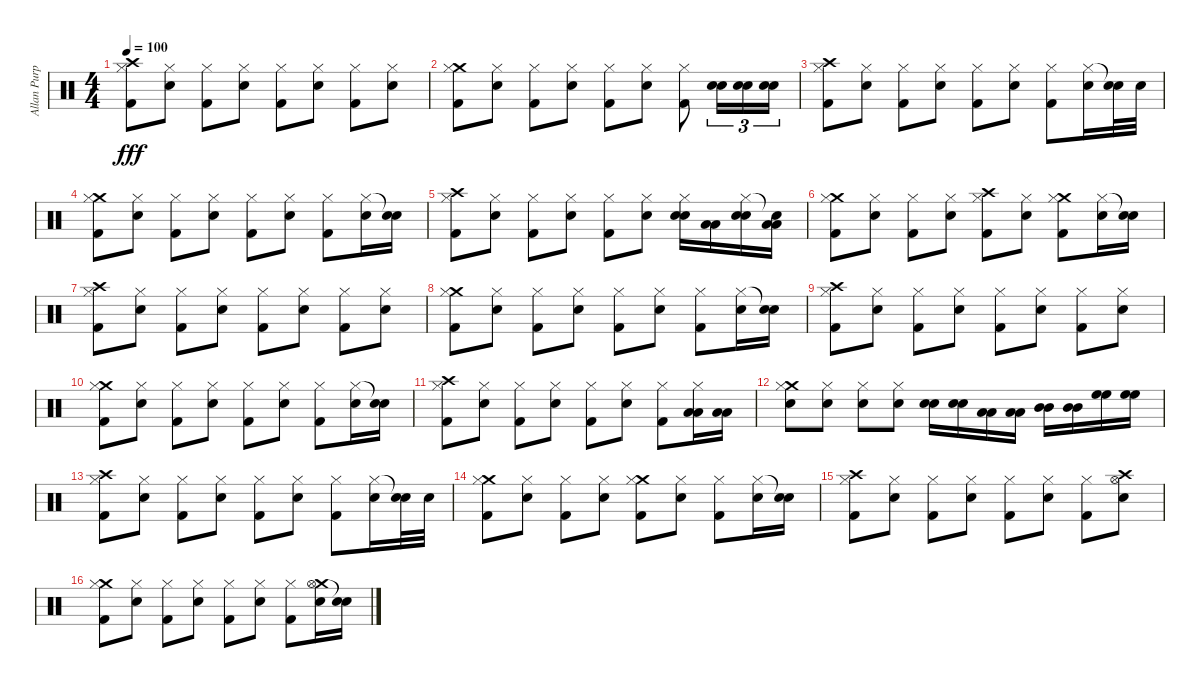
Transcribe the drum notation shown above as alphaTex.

\track ("Allan Purple" "Allan Purp") {instrument percussion}
\staff {score}
\articulation defaults
\ts (4 4)
\tempo 100
\clef neutral
\ks c
("Crash high (hit)" "Hi-Hat (closed)" "Kick (hit) 2").8{dy fff} ("Hi-Hat (closed)" "Electric Snare (hit)").8 ("Hi-Hat (closed)" "Kick (hit) 2").8 ("Hi-Hat (closed)" "Electric Snare (hit)").8 ("Hi-Hat (closed)" "Kick (hit) 2").8 ("Hi-Hat (closed)" "Electric Snare (hit)").8 ("Hi-Hat (closed)" "Kick (hit) 2").8 ("Hi-Hat (closed)" "Electric Snare (hit)").8 |
("Crash medium (hit)" "Hi-Hat (closed)" "Kick (hit) 2").8 ("Hi-Hat (closed)" "Electric Snare (hit)").8 ("Hi-Hat (closed)" "Kick (hit) 2").8 ("Hi-Hat (closed)" "Electric Snare (hit)").8 ("Hi-Hat (closed)" "Kick (hit) 2").8 ("Hi-Hat (closed)" "Electric Snare (hit)").8 ("Hi-Hat (closed)" "Kick (hit) 2").8 ("Electric Snare (hit)" "Electric Snare (hit)").16{tu (3 2)} ("Electric Snare (hit)" "Electric Snare (hit)").16{tu (3 2)} ("Electric Snare (hit)" "Electric Snare (hit)").16{tu (3 2)} |
("Crash high (hit)" "Hi-Hat (closed)" "Kick (hit) 2").8 ("Hi-Hat (closed)" "Electric Snare (hit)").8 ("Hi-Hat (closed)" "Kick (hit) 2").8 ("Hi-Hat (closed)" "Electric Snare (hit)").8 ("Hi-Hat (closed)" "Kick (hit) 2").8 ("Hi-Hat (closed)" "Electric Snare (hit)").8 ("Hi-Hat (closed)" "Kick (hit) 2").8 ("Hi-Hat (closed)" "Electric Snare (hit)").16 ("Snare (hit)"{t} "Electric Snare (hit)").32 "Electric Snare (hit)".32 |
("Crash medium (hit)" "Hi-Hat (closed)" "Kick (hit) 2").8 ("Hi-Hat (closed)" "Electric Snare (hit)").8 ("Hi-Hat (closed)" "Kick (hit) 2").8 ("Hi-Hat (closed)" "Electric Snare (hit)").8 ("Hi-Hat (closed)" "Kick (hit) 2").8 ("Hi-Hat (closed)" "Electric Snare (hit)").8 ("Hi-Hat (closed)" "Kick (hit) 2").8 ("Hi-Hat (closed)" "Electric Snare (hit)").16 ("Snare (hit)"{t} "Electric Snare (hit)").16 |
("Crash high (hit)" "Hi-Hat (closed)" "Kick (hit) 2").8 ("Hi-Hat (closed)" "Electric Snare (hit)").8 ("Hi-Hat (closed)" "Kick (hit) 2").8 ("Hi-Hat (closed)" "Electric Snare (hit)").8 ("Hi-Hat (closed)" "Kick (hit) 2").8 ("Hi-Hat (closed)" "Electric Snare (hit)").8 ("Hi-Hat (closed)" "Electric Snare (hit)" "Electric Snare (hit)").16 ("Low Tom (hit)" "Low Tom (hit)").16 ("Hi-Hat (closed)" "Electric Snare (hit)" "Electric Snare (hit)").16 ("Snare (hit)"{t} "Low Tom (hit)" "Low Tom (hit)").16 |
("Crash medium (hit)" "Hi-Hat (closed)" "Kick (hit) 2").8 ("Hi-Hat (closed)" "Electric Snare (hit)").8 ("Hi-Hat (closed)" "Kick (hit) 2").8 ("Hi-Hat (closed)" "Electric Snare (hit)").8 ("Crash high (hit)" "Hi-Hat (closed)" "Kick (hit) 2").8 ("Hi-Hat (closed)" "Electric Snare (hit)").8 ("Crash medium (hit)" "Hi-Hat (closed)" "Kick (hit) 2").8 ("Hi-Hat (closed)" "Electric Snare (hit)").16 ("Snare (hit)"{t} "Electric Snare (hit)").16 |
("Crash high (hit)" "Hi-Hat (closed)" "Kick (hit) 2").8 ("Hi-Hat (closed)" "Electric Snare (hit)").8 ("Hi-Hat (closed)" "Kick (hit) 2").8 ("Hi-Hat (closed)" "Electric Snare (hit)").8 ("Hi-Hat (closed)" "Kick (hit) 2").8 ("Hi-Hat (closed)" "Electric Snare (hit)").8 ("Hi-Hat (closed)" "Kick (hit) 2").8 ("Hi-Hat (closed)" "Electric Snare (hit)").8 |
("Crash medium (hit)" "Hi-Hat (closed)" "Kick (hit) 2").8 ("Hi-Hat (closed)" "Electric Snare (hit)").8 ("Hi-Hat (closed)" "Kick (hit) 2").8 ("Hi-Hat (closed)" "Electric Snare (hit)").8 ("Hi-Hat (closed)" "Kick (hit) 2").8 ("Hi-Hat (closed)" "Electric Snare (hit)").8 ("Hi-Hat (closed)" "Kick (hit) 2").8 ("Hi-Hat (closed)" "Electric Snare (hit)").16 ("Snare (hit)"{t} "Electric Snare (hit)").16 |
("Crash high (hit)" "Hi-Hat (closed)" "Kick (hit) 2").8 ("Hi-Hat (closed)" "Electric Snare (hit)").8 ("Hi-Hat (closed)" "Kick (hit) 2").8 ("Hi-Hat (closed)" "Electric Snare (hit)").8 ("Hi-Hat (closed)" "Kick (hit) 2").8 ("Hi-Hat (closed)" "Electric Snare (hit)").8 ("Hi-Hat (closed)" "Kick (hit) 2").8 ("Hi-Hat (closed)" "Electric Snare (hit)").8 |
("Crash medium (hit)" "Hi-Hat (closed)" "Kick (hit) 2").8 ("Hi-Hat (closed)" "Electric Snare (hit)").8 ("Hi-Hat (closed)" "Kick (hit) 2").8 ("Hi-Hat (closed)" "Electric Snare (hit)").8 ("Hi-Hat (closed)" "Kick (hit) 2").8 ("Hi-Hat (closed)" "Electric Snare (hit)").8 ("Hi-Hat (closed)" "Kick (hit) 2").8 ("Hi-Hat (closed)" "Electric Snare (hit)").16 ("Snare (hit)"{t} "Electric Snare (hit)").16 |
("Crash high (hit)" "Hi-Hat (closed)" "Kick (hit) 2").8 ("Hi-Hat (closed)" "Electric Snare (hit)").8 ("Hi-Hat (closed)" "Kick (hit) 2").8 ("Hi-Hat (closed)" "Electric Snare (hit)").8 ("Hi-Hat (closed)" "Kick (hit) 2").8 ("Hi-Hat (closed)" "Electric Snare (hit)").8 ("Hi-Hat (closed)" "Kick (hit) 2").8 ("Hi-Hat (closed)" "Low Tom (hit)" "Low Tom (hit)").16 ("Low Tom (hit)" "Low Tom (hit)").16 |
("Crash medium (hit)" "Hi-Hat (closed)" "Electric Snare (hit)").8 ("Hi-Hat (closed)" "Electric Snare (hit)").8 ("Hi-Hat (closed)" "Electric Snare (hit)").8 ("Hi-Hat (closed)" "Electric Snare (hit)").8 ("Electric Snare (hit)" "Electric Snare (hit)").16 ("Electric Snare (hit)" "Electric Snare (hit)").16 ("Low Tom (hit)" "Low Tom (hit)").16 ("Low Tom (hit)" "Low Tom (hit)").16 ("Mid Tom (hit)" "Mid Tom (hit)").16 ("Mid Tom (hit)" "Mid Tom (hit)").16 ("High Floor Tom (hit)" "High Floor Tom (hit)").16 ("High Floor Tom (hit)" "High Floor Tom (hit)").16 |
("Crash high (hit)" "Hi-Hat (closed)" "Kick (hit) 2").8 ("Hi-Hat (closed)" "Electric Snare (hit)").8 ("Hi-Hat (closed)" "Kick (hit) 2").8 ("Hi-Hat (closed)" "Electric Snare (hit)").8 ("Hi-Hat (closed)" "Kick (hit) 2").8 ("Hi-Hat (closed)" "Electric Snare (hit)").8 ("Hi-Hat (closed)" "Kick (hit) 2").8 ("Hi-Hat (closed)" "Electric Snare (hit)").16 ("Snare (hit)"{t} "Electric Snare (hit)").32 "Electric Snare (hit)".32 |
("Crash medium (hit)" "Hi-Hat (closed)" "Kick (hit) 2").8 ("Hi-Hat (closed)" "Electric Snare (hit)").8 ("Hi-Hat (closed)" "Kick (hit) 2").8 ("Hi-Hat (closed)" "Electric Snare (hit)").8 ("Crash medium (hit)" "Hi-Hat (closed)" "Kick (hit) 2").8 ("Hi-Hat (closed)" "Electric Snare (hit)").8 ("Hi-Hat (closed)" "Kick (hit) 2").8 ("Hi-Hat (closed)" "Electric Snare (hit)").16 ("Snare (hit)"{t} "Electric Snare (hit)").16 |
("Crash high (hit)" "Hi-Hat (closed)" "Kick (hit) 2").8 ("Hi-Hat (closed)" "Electric Snare (hit)").8 ("Hi-Hat (closed)" "Kick (hit) 2").8 ("Hi-Hat (closed)" "Electric Snare (hit)").8 ("Hi-Hat (closed)" "Kick (hit) 2").8 ("Hi-Hat (closed)" "Electric Snare (hit)").8 ("Hi-Hat (closed)" "Kick (hit) 2").8 ("Crash high (hit)" "Hi-Hat (open)" "Electric Snare (hit)").8 |
("Crash medium (hit)" "Hi-Hat (closed)" "Kick (hit) 2").8 ("Hi-Hat (closed)" "Electric Snare (hit)").8 ("Hi-Hat (closed)" "Kick (hit) 2").8 ("Hi-Hat (closed)" "Electric Snare (hit)").8 ("Hi-Hat (closed)" "Kick (hit) 2").8 ("Hi-Hat (closed)" "Electric Snare (hit)").8 ("Hi-Hat (closed)" "Kick (hit) 2").8 ("Crash medium (hit)" "Hi-Hat (open)" "Electric Snare (hit)").16 ("Snare (hit)"{t} "Electric Snare (hit)").16
